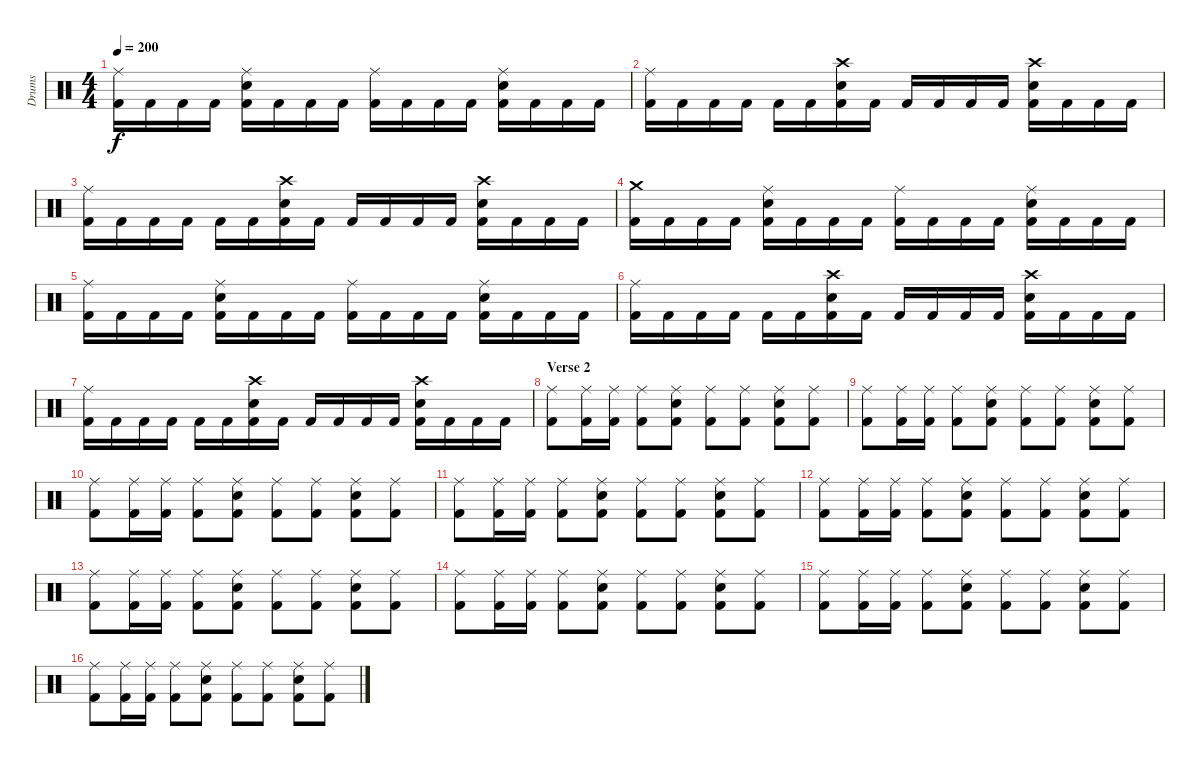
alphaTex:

\track ("Drums" "Drums") {instrument percussion}
\staff {score}
\articulation defaults
\ts (4 4)
\tempo 200
\clef neutral
\ks c
("Ride (middle)" "Kick (hit) 2").16{dy f} "Kick (hit) 2".16 "Kick (hit) 2".16 "Kick (hit) 2".16 ("Ride (middle)" "Snare (hit) 2" "Kick (hit) 2").16 "Kick (hit) 2".16 "Kick (hit) 2".16 "Kick (hit) 2".16 ("Ride (middle)" "Kick (hit) 2").16 "Kick (hit) 2".16 "Kick (hit) 2".16 "Kick (hit) 2".16 ("Ride (middle)" "Snare (hit) 2" "Kick (hit) 2").16 "Kick (hit) 2".16 "Kick (hit) 2".16 "Kick (hit) 2".16 |
("Ride (middle)" "Kick (hit) 2").16 "Kick (hit) 2".16 "Kick (hit) 2".16 "Kick (hit) 2".16 "Kick (hit) 2".16 "Kick (hit) 2".16 ("Crash high (hit)" "Snare (hit) 2" "Kick (hit) 2").16 "Kick (hit) 2".16 "Kick (hit) 2".16 "Kick (hit) 2".16 "Kick (hit) 2".16 "Kick (hit) 2".16 ("Crash high (hit)" "Snare (hit) 2" "Kick (hit) 2").16 "Kick (hit) 2".16 "Kick (hit) 2".16 "Kick (hit) 2".16 |
("Ride (middle)" "Kick (hit) 2").16 "Kick (hit) 2".16 "Kick (hit) 2".16 "Kick (hit) 2".16 "Kick (hit) 2".16 "Kick (hit) 2".16 ("Crash high (hit)" "Snare (hit) 2" "Kick (hit) 2").16 "Kick (hit) 2".16 "Kick (hit) 2".16 "Kick (hit) 2".16 "Kick (hit) 2".16 "Kick (hit) 2".16 ("Crash high (hit)" "Snare (hit) 2" "Kick (hit) 2").16 "Kick (hit) 2".16 "Kick (hit) 2".16 "Kick (hit) 2".16 |
("Crash medium (hit)" "Kick (hit) 2").16 "Kick (hit) 2".16 "Kick (hit) 2".16 "Kick (hit) 2".16 ("Ride (middle)" "Snare (hit) 2" "Kick (hit) 2").16 "Kick (hit) 2".16 "Kick (hit) 2".16 "Kick (hit) 2".16 ("Ride (middle)" "Kick (hit) 2").16 "Kick (hit) 2".16 "Kick (hit) 2".16 "Kick (hit) 2".16 ("Ride (middle)" "Snare (hit) 2" "Kick (hit) 2").16 "Kick (hit) 2".16 "Kick (hit) 2".16 "Kick (hit) 2".16 |
("Ride (middle)" "Kick (hit) 2").16 "Kick (hit) 2".16 "Kick (hit) 2".16 "Kick (hit) 2".16 ("Ride (middle)" "Snare (hit) 2" "Kick (hit) 2").16 "Kick (hit) 2".16 "Kick (hit) 2".16 "Kick (hit) 2".16 ("Ride (middle)" "Kick (hit) 2").16 "Kick (hit) 2".16 "Kick (hit) 2".16 "Kick (hit) 2".16 ("Ride (middle)" "Snare (hit) 2" "Kick (hit) 2").16 "Kick (hit) 2".16 "Kick (hit) 2".16 "Kick (hit) 2".16 |
("Ride (middle)" "Kick (hit) 2").16 "Kick (hit) 2".16 "Kick (hit) 2".16 "Kick (hit) 2".16 "Kick (hit) 2".16 "Kick (hit) 2".16 ("Crash high (hit)" "Snare (hit) 2" "Kick (hit) 2").16 "Kick (hit) 2".16 "Kick (hit) 2".16 "Kick (hit) 2".16 "Kick (hit) 2".16 "Kick (hit) 2".16 ("Crash high (hit)" "Snare (hit) 2" "Kick (hit) 2").16 "Kick (hit) 2".16 "Kick (hit) 2".16 "Kick (hit) 2".16 |
("Ride (middle)" "Kick (hit) 2").16 "Kick (hit) 2".16 "Kick (hit) 2".16 "Kick (hit) 2".16 "Kick (hit) 2".16 "Kick (hit) 2".16 ("Crash high (hit)" "Snare (hit) 2" "Kick (hit) 2").16 "Kick (hit) 2".16 "Kick (hit) 2".16 "Kick (hit) 2".16 "Kick (hit) 2".16 "Kick (hit) 2".16 ("Crash high (hit)" "Snare (hit) 2" "Kick (hit) 2").16 "Kick (hit) 2".16 "Kick (hit) 2".16 "Kick (hit) 2".16 |
\section ("" "Verse 2")
("Ride (middle)" "Kick (hit) 2").8 ("Ride (middle)" "Kick (hit) 2").16 ("Ride (middle)" "Kick (hit) 2").16 ("Ride (middle)" "Kick (hit) 2").8 ("Ride (middle)" "Snare (hit) 2" "Kick (hit) 2").8 ("Ride (middle)" "Kick (hit) 2").8 ("Ride (middle)" "Kick (hit) 2").8 ("Ride (middle)" "Snare (hit) 2" "Kick (hit) 2").8 ("Ride (middle)" "Kick (hit) 2").8 |
("Ride (middle)" "Kick (hit) 2").8 ("Ride (middle)" "Kick (hit) 2").16 ("Ride (middle)" "Kick (hit) 2").16 ("Ride (middle)" "Kick (hit) 2").8 ("Ride (middle)" "Snare (hit) 2" "Kick (hit) 2").8 ("Ride (middle)" "Kick (hit) 2").8 ("Ride (middle)" "Kick (hit) 2").8 ("Ride (middle)" "Snare (hit) 2" "Kick (hit) 2").8 ("Ride (middle)" "Kick (hit) 2").8 |
("Ride (middle)" "Kick (hit) 2").8 ("Ride (middle)" "Kick (hit) 2").16 ("Ride (middle)" "Kick (hit) 2").16 ("Ride (middle)" "Kick (hit) 2").8 ("Ride (middle)" "Snare (hit) 2" "Kick (hit) 2").8 ("Ride (middle)" "Kick (hit) 2").8 ("Ride (middle)" "Kick (hit) 2").8 ("Ride (middle)" "Snare (hit) 2" "Kick (hit) 2").8 ("Ride (middle)" "Kick (hit) 2").8 |
("Ride (middle)" "Kick (hit) 2").8 ("Ride (middle)" "Kick (hit) 2").16 ("Ride (middle)" "Kick (hit) 2").16 ("Ride (middle)" "Kick (hit) 2").8 ("Ride (middle)" "Snare (hit) 2" "Kick (hit) 2").8 ("Ride (middle)" "Kick (hit) 2").8 ("Ride (middle)" "Kick (hit) 2").8 ("Ride (middle)" "Snare (hit) 2" "Kick (hit) 2").8 ("Ride (middle)" "Kick (hit) 2").8 |
("Ride (middle)" "Kick (hit) 2").8 ("Ride (middle)" "Kick (hit) 2").16 ("Ride (middle)" "Kick (hit) 2").16 ("Ride (middle)" "Kick (hit) 2").8 ("Ride (middle)" "Snare (hit) 2" "Kick (hit) 2").8 ("Ride (middle)" "Kick (hit) 2").8 ("Ride (middle)" "Kick (hit) 2").8 ("Ride (middle)" "Snare (hit) 2" "Kick (hit) 2").8 ("Ride (middle)" "Kick (hit) 2").8 |
("Ride (middle)" "Kick (hit) 2").8 ("Ride (middle)" "Kick (hit) 2").16 ("Ride (middle)" "Kick (hit) 2").16 ("Ride (middle)" "Kick (hit) 2").8 ("Ride (middle)" "Snare (hit) 2" "Kick (hit) 2").8 ("Ride (middle)" "Kick (hit) 2").8 ("Ride (middle)" "Kick (hit) 2").8 ("Ride (middle)" "Snare (hit) 2" "Kick (hit) 2").8 ("Ride (middle)" "Kick (hit) 2").8 |
("Ride (middle)" "Kick (hit) 2").8 ("Ride (middle)" "Kick (hit) 2").16 ("Ride (middle)" "Kick (hit) 2").16 ("Ride (middle)" "Kick (hit) 2").8 ("Ride (middle)" "Snare (hit) 2" "Kick (hit) 2").8 ("Ride (middle)" "Kick (hit) 2").8 ("Ride (middle)" "Kick (hit) 2").8 ("Ride (middle)" "Snare (hit) 2" "Kick (hit) 2").8 ("Ride (middle)" "Kick (hit) 2").8 |
("Ride (middle)" "Kick (hit) 2").8 ("Ride (middle)" "Kick (hit) 2").16 ("Ride (middle)" "Kick (hit) 2").16 ("Ride (middle)" "Kick (hit) 2").8 ("Ride (middle)" "Snare (hit) 2" "Kick (hit) 2").8 ("Ride (middle)" "Kick (hit) 2").8 ("Ride (middle)" "Kick (hit) 2").8 ("Ride (middle)" "Snare (hit) 2" "Kick (hit) 2").8 ("Ride (middle)" "Kick (hit) 2").8 |
("Ride (middle)" "Kick (hit) 2").8 ("Ride (middle)" "Kick (hit) 2").16 ("Ride (middle)" "Kick (hit) 2").16 ("Ride (middle)" "Kick (hit) 2").8 ("Ride (middle)" "Snare (hit) 2" "Kick (hit) 2").8 ("Ride (middle)" "Kick (hit) 2").8 ("Ride (middle)" "Kick (hit) 2").8 ("Ride (middle)" "Snare (hit) 2" "Kick (hit) 2").8 ("Ride (middle)" "Kick (hit) 2").8
